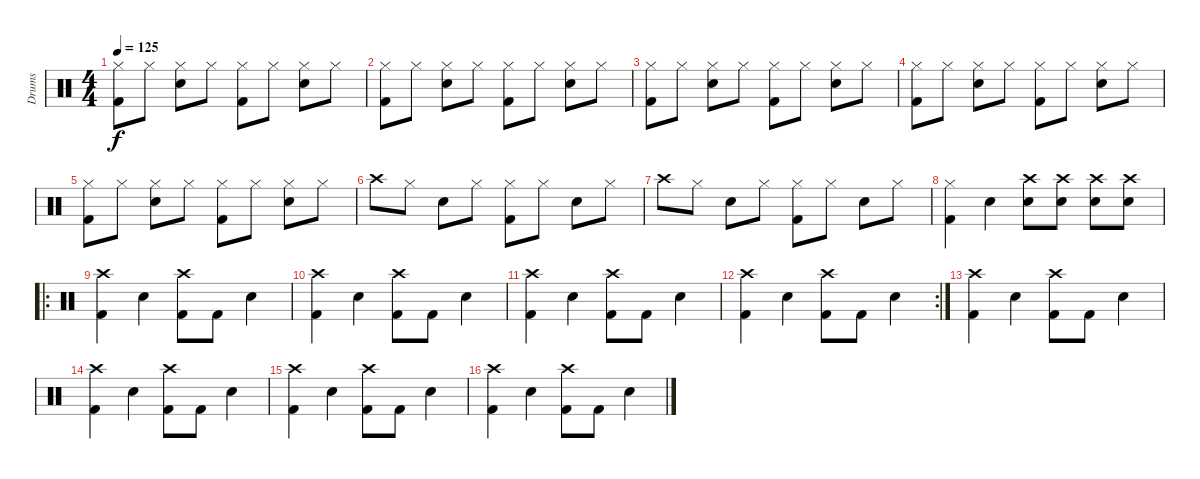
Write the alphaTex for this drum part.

\track ("Drums" "Drums") {instrument percussion}
\staff {score}
\articulation defaults
\ts (4 4)
\tempo 125
\clef neutral
\ks c
("Hi-Hat (closed)" "Kick (hit) 2").8{dy f} "Hi-Hat (closed)".8 ("Hi-Hat (closed)" "Snare (hit) 2").8 "Hi-Hat (closed)".8 ("Hi-Hat (closed)" "Kick (hit) 2").8 "Hi-Hat (closed)".8 ("Hi-Hat (closed)" "Snare (hit) 2").8 "Hi-Hat (closed)".8 |
("Hi-Hat (closed)" "Kick (hit) 2").8 "Hi-Hat (closed)".8 ("Hi-Hat (closed)" "Snare (hit) 2").8 "Hi-Hat (closed)".8 ("Hi-Hat (closed)" "Kick (hit) 2").8 "Hi-Hat (closed)".8 ("Hi-Hat (closed)" "Snare (hit) 2").8 "Hi-Hat (closed)".8 |
("Hi-Hat (closed)" "Kick (hit) 2").8 "Hi-Hat (closed)".8 ("Hi-Hat (closed)" "Snare (hit) 2").8 "Hi-Hat (closed)".8 ("Hi-Hat (closed)" "Kick (hit) 2").8 "Hi-Hat (closed)".8 ("Hi-Hat (closed)" "Snare (hit) 2").8 "Hi-Hat (closed)".8 |
("Hi-Hat (closed)" "Kick (hit) 2").8 "Hi-Hat (closed)".8 ("Hi-Hat (closed)" "Snare (hit) 2").8 "Hi-Hat (closed)".8 ("Hi-Hat (closed)" "Kick (hit) 2").8 "Hi-Hat (closed)".8 ("Hi-Hat (closed)" "Snare (hit) 2").8 "Hi-Hat (closed)".8 |
("Hi-Hat (closed)" "Kick (hit) 2").8 "Hi-Hat (closed)".8 ("Hi-Hat (closed)" "Snare (hit) 2").8 "Hi-Hat (closed)".8 ("Hi-Hat (closed)" "Kick (hit) 2").8 "Hi-Hat (closed)".8 ("Hi-Hat (closed)" "Snare (hit) 2").8 "Hi-Hat (closed)".8 |
"Crash high (hit)".8 "Hi-Hat (closed)".8 "Snare (hit) 2".8 "Hi-Hat (closed)".8 ("Hi-Hat (closed)" "Kick (hit) 2").8 "Hi-Hat (closed)".8 "Snare (hit) 2".8 "Hi-Hat (closed)".8 |
"Crash high (hit)".8 "Hi-Hat (closed)".8 "Snare (hit) 2".8 "Hi-Hat (closed)".8 ("Hi-Hat (closed)" "Kick (hit) 2").8 "Hi-Hat (closed)".8 "Snare (hit) 2".8 "Hi-Hat (closed)".8 |
("Hi-Hat (closed)" "Kick (hit) 2").4 "Snare (hit) 2".4 ("Snare (hit) 2" "Crash high (hit)").8 ("Snare (hit) 2" "Crash high (hit)").8 ("Snare (hit) 2" "Crash high (hit)").8 ("Snare (hit) 2" "Crash high (hit)").8 |
\ro
("Crash high (hit)" "Kick (hit) 2").4 "Snare (hit) 2".4 ("Crash high (hit)" "Kick (hit) 2").8 "Kick (hit) 2".8 "Snare (hit) 2".4 |
("Crash high (hit)" "Kick (hit) 2").4 "Snare (hit) 2".4 ("Crash high (hit)" "Kick (hit) 2").8 "Kick (hit) 2".8 "Snare (hit) 2".4 |
("Crash high (hit)" "Kick (hit) 2").4 "Snare (hit) 2".4 ("Crash high (hit)" "Kick (hit) 2").8 "Kick (hit) 2".8 "Snare (hit) 2".4 |
\rc 2
("Crash high (hit)" "Kick (hit) 2").4 "Snare (hit) 2".4 ("Crash high (hit)" "Kick (hit) 2").8 "Kick (hit) 2".8 "Snare (hit) 2".4 |
("Crash high (hit)" "Kick (hit) 2").4 "Snare (hit) 2".4 ("Crash high (hit)" "Kick (hit) 2").8 "Kick (hit) 2".8 "Snare (hit) 2".4 |
("Crash high (hit)" "Kick (hit) 2").4 "Snare (hit) 2".4 ("Crash high (hit)" "Kick (hit) 2").8 "Kick (hit) 2".8 "Snare (hit) 2".4 |
("Crash high (hit)" "Kick (hit) 2").4 "Snare (hit) 2".4 ("Crash high (hit)" "Kick (hit) 2").8 "Kick (hit) 2".8 "Snare (hit) 2".4 |
("Crash high (hit)" "Kick (hit) 2").4 "Snare (hit) 2".4 ("Crash high (hit)" "Kick (hit) 2").8 "Kick (hit) 2".8 "Snare (hit) 2".4
